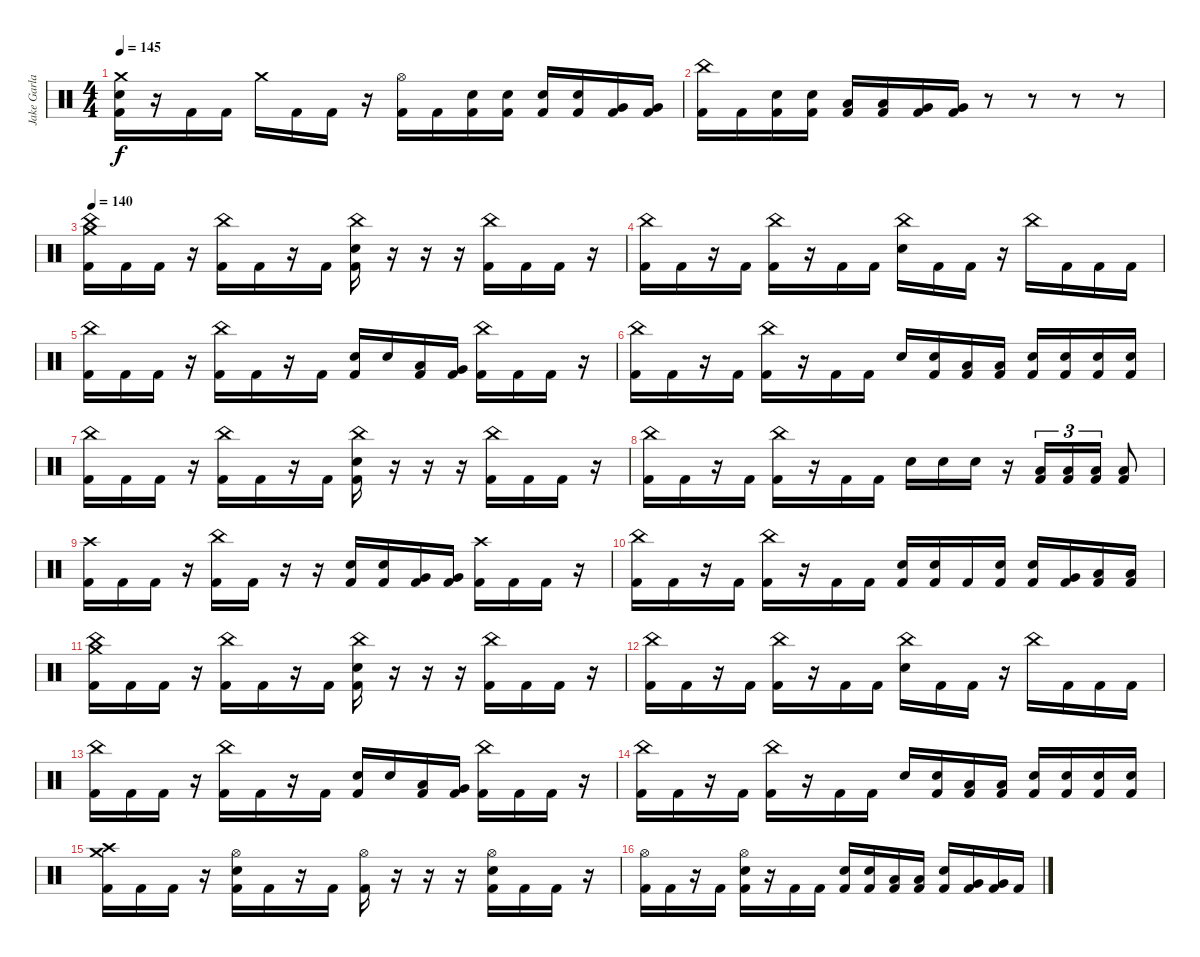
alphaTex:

\track ("Jake Garland" "Jake Garla") {instrument percussion}
\staff {score}
\articulation defaults
\ts (4 4)
\tempo 145
\clef neutral
\ks c
("Crash medium (hit)" "Electric Snare (hit)" "Kick (hit) 2").16{dy f} r.16 "Kick (hit) 2".16 "Kick (hit) 2".16 "Crash medium (hit)".16 "Kick (hit) 2".16 "Kick (hit) 2".16 r.16 ("Hi-Hat (open)" "Kick (hit) 2").16 "Kick (hit) 2".16 ("Electric Snare (hit)" "Kick (hit) 2").16 ("Electric Snare (hit)" "Kick (hit) 2").16 ("Electric Snare (hit)" "Kick (hit) 2").16 ("Electric Snare (hit)" "Kick (hit) 2").16 ("Very Low Tom (hit)" "Kick (hit) 2").16 ("Very Low Tom (hit)" "Kick (hit) 2").16 |
("China (hit)" "Kick (hit) 2").16 "Kick (hit) 2".16 ("Electric Snare (hit)" "Kick (hit) 2").16 ("Electric Snare (hit)" "Kick (hit) 2").16 ("Low Tom (hit)" "Kick (hit) 2").16 ("Low Tom (hit)" "Kick (hit) 2").16 ("Very Low Tom (hit)" "Kick (hit) 2").16 ("Very Low Tom (hit)" "Kick (hit) 2").16 r.8 r.8 r.8 r.8 |
\tempo 140
("China (hit)" "Crash medium (hit)" "Kick (hit) 2").16 "Kick (hit) 2".16 "Kick (hit) 2".16 r.16 ("China (hit)" "Kick (hit) 2").16 "Kick (hit) 2".16 r.16 "Kick (hit) 2".16 ("China (hit)" "Electric Snare (hit)" "Kick (hit) 2").16 r.16 r.16 r.16 ("China (hit)" "Kick (hit) 2").16 "Kick (hit) 2".16 "Kick (hit) 2".16 r.16 |
("China (hit)" "Kick (hit) 2").16 "Kick (hit) 2".16 r.16 "Kick (hit) 2".16 ("China (hit)" "Kick (hit) 2").16 r.16 "Kick (hit) 2".16 "Kick (hit) 2".16 ("China (hit)" "Electric Snare (hit)").16 "Kick (hit) 2".16 "Kick (hit) 2".16 r.16 "China (hit)".16 "Kick (hit) 2".16 "Kick (hit) 2".16 "Kick (hit) 2".16 |
("China (hit)" "Kick (hit) 2").16 "Kick (hit) 2".16 "Kick (hit) 2".16 r.16 ("China (hit)" "Kick (hit) 2").16 "Kick (hit) 2".16 r.16 "Kick (hit) 2".16 ("Electric Snare (hit)" "Kick (hit) 2").16 "Electric Snare (hit)".16 ("Low Tom (hit)" "Kick (hit) 2").16 ("Very Low Tom (hit)" "Kick (hit) 2").16 ("China (hit)" "Kick (hit) 2").16 "Kick (hit) 2".16 "Kick (hit) 2".16 r.16 |
("China (hit)" "Kick (hit) 2").16 "Kick (hit) 2".16 r.16 "Kick (hit) 2".16 ("China (hit)" "Kick (hit) 2").16 r.16 "Kick (hit) 2".16 "Kick (hit) 2".16 "Electric Snare (hit)".16 ("Electric Snare (hit)" "Kick (hit) 2").16 ("Low Tom (hit)" "Kick (hit) 2").16 ("Low Tom (hit)" "Kick (hit) 2").16 ("Electric Snare (hit)" "Kick (hit) 2").16 ("Electric Snare (hit)" "Kick (hit) 2").16 ("Electric Snare (hit)" "Kick (hit) 2").16 ("Electric Snare (hit)" "Kick (hit) 2").16 |
("China (hit)" "Kick (hit) 2").16 "Kick (hit) 2".16 "Kick (hit) 2".16 r.16 ("China (hit)" "Kick (hit) 2").16 "Kick (hit) 2".16 r.16 "Kick (hit) 2".16 ("China (hit)" "Electric Snare (hit)" "Kick (hit) 2").16 r.16 r.16 r.16 ("China (hit)" "Kick (hit) 2").16 "Kick (hit) 2".16 "Kick (hit) 2".16 r.16 |
("China (hit)" "Kick (hit) 2").16 "Kick (hit) 2".16 r.16 "Kick (hit) 2".16 ("China (hit)" "Kick (hit) 2").16 r.16 "Kick (hit) 2".16 "Kick (hit) 2".16 "Electric Snare (hit)".16 "Electric Snare (hit)".16 "Electric Snare (hit)".16 r.16 ("Low Tom (hit)" "Kick (hit) 2").16{tu (3 2)} ("Low Tom (hit)" "Kick (hit) 2").16{tu (3 2)} ("Low Tom (hit)" "Kick (hit) 2").16{tu (3 2)} ("Low Tom (hit)" "Kick (hit) 2").8 |
("Crash high (hit)" "Kick (hit) 2").16 "Kick (hit) 2".16 "Kick (hit) 2".16 r.16 ("China (hit)" "Kick (hit) 2").16 "Kick (hit) 2".16 r.16 r.16 ("Electric Snare (hit)" "Kick (hit) 2").16 ("Electric Snare (hit)" "Kick (hit) 2").16 ("Very Low Tom (hit)" "Kick (hit) 2").16 ("Very Low Tom (hit)" "Kick (hit) 2").16 ("Crash high (hit)" "Kick (hit) 2").16 "Kick (hit) 2".16 "Kick (hit) 2".16 r.16 |
("China (hit)" "Kick (hit) 2").16 "Kick (hit) 2".16 r.16 "Kick (hit) 2".16 ("China (hit)" "Kick (hit) 2").16 r.16 "Kick (hit) 2".16 "Kick (hit) 2".16 ("Electric Snare (hit)" "Kick (hit) 2").16 ("Electric Snare (hit)" "Kick (hit) 2").16 "Kick (hit) 2".16 ("Electric Snare (hit)" "Kick (hit) 2").16 ("Electric Snare (hit)" "Kick (hit) 2").16 ("Very Low Tom (hit)" "Kick (hit) 2").16 ("Low Floor Tom (hit)" "Kick (hit) 2").16 ("Low Floor Tom (hit)" "Kick (hit) 2").16 |
("China (hit)" "Crash medium (hit)" "Kick (hit) 2").16 "Kick (hit) 2".16 "Kick (hit) 2".16 r.16 ("China (hit)" "Kick (hit) 2").16 "Kick (hit) 2".16 r.16 "Kick (hit) 2".16 ("China (hit)" "Electric Snare (hit)" "Kick (hit) 2").16 r.16 r.16 r.16 ("China (hit)" "Kick (hit) 2").16 "Kick (hit) 2".16 "Kick (hit) 2".16 r.16 |
("China (hit)" "Kick (hit) 2").16 "Kick (hit) 2".16 r.16 "Kick (hit) 2".16 ("China (hit)" "Kick (hit) 2").16 r.16 "Kick (hit) 2".16 "Kick (hit) 2".16 ("China (hit)" "Electric Snare (hit)").16 "Kick (hit) 2".16 "Kick (hit) 2".16 r.16 "China (hit)".16 "Kick (hit) 2".16 "Kick (hit) 2".16 "Kick (hit) 2".16 |
("China (hit)" "Kick (hit) 2").16 "Kick (hit) 2".16 "Kick (hit) 2".16 r.16 ("China (hit)" "Kick (hit) 2").16 "Kick (hit) 2".16 r.16 "Kick (hit) 2".16 ("Electric Snare (hit)" "Kick (hit) 2").16 "Electric Snare (hit)".16 ("Low Tom (hit)" "Kick (hit) 2").16 ("Very Low Tom (hit)" "Kick (hit) 2").16 ("China (hit)" "Kick (hit) 2").16 "Kick (hit) 2".16 "Kick (hit) 2".16 r.16 |
("China (hit)" "Kick (hit) 2").16 "Kick (hit) 2".16 r.16 "Kick (hit) 2".16 ("China (hit)" "Kick (hit) 2").16 r.16 "Kick (hit) 2".16 "Kick (hit) 2".16 "Electric Snare (hit)".16 ("Electric Snare (hit)" "Kick (hit) 2").16 ("Low Tom (hit)" "Kick (hit) 2").16 ("Low Tom (hit)" "Kick (hit) 2").16 ("Electric Snare (hit)" "Kick (hit) 2").16 ("Electric Snare (hit)" "Kick (hit) 2").16 ("Electric Snare (hit)" "Kick (hit) 2").16 ("Electric Snare (hit)" "Kick (hit) 2").16 |
("Crash high (hit)" "Crash medium (hit)" "Kick (hit) 2").16 "Kick (hit) 2".16 "Kick (hit) 2".16 r.16 ("Hi-Hat (open)" "Electric Snare (hit)" "Kick (hit) 2").16 "Kick (hit) 2".16 r.16 "Kick (hit) 2".16 ("Hi-Hat (open)" "Kick (hit) 2").16 r.16 r.16 r.16 ("Hi-Hat (open)" "Electric Snare (hit)" "Kick (hit) 2").16 "Kick (hit) 2".16 "Kick (hit) 2".16 r.16 |
("Hi-Hat (open)" "Kick (hit) 2").16 "Kick (hit) 2".16 r.16 "Kick (hit) 2".16 ("Hi-Hat (open)" "Electric Snare (hit)" "Kick (hit) 2").16 r.16 "Kick (hit) 2".16 "Kick (hit) 2".16 ("Electric Snare (hit)" "Kick (hit) 2").16 ("Electric Snare (hit)" "Kick (hit) 2").16 ("Low Tom (hit)" "Kick (hit) 2").16 ("Low Tom (hit)" "Kick (hit) 2").16 ("Electric Snare (hit)" "Kick (hit) 2").16 ("Very Low Tom (hit)" "Kick (hit) 2").16 ("Very Low Tom (hit)" "Kick (hit) 2").16 "Kick (hit) 2".16
